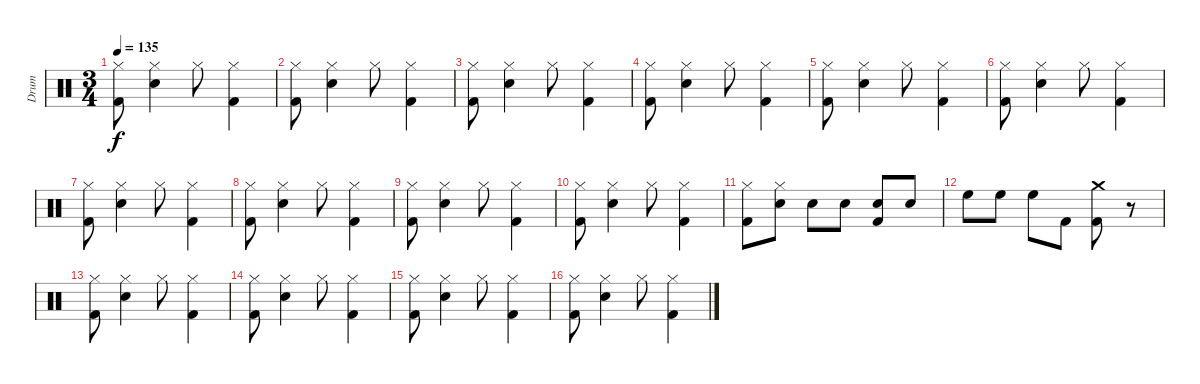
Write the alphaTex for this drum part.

\track ("Drum" "Drum") {instrument percussion}
\staff {score}
\articulation defaults
\ts (3 4)
\tempo 135
\clef neutral
\ks c
("Hi-Hat (closed)" "Kick (hit) 2").8{dy f} ("Hi-Hat (closed)" "Snare (hit) 2").4 "Hi-Hat (closed)".8 ("Hi-Hat (closed)" "Kick (hit) 2").4 |
("Hi-Hat (closed)" "Kick (hit) 2").8 ("Hi-Hat (closed)" "Snare (hit) 2").4 "Hi-Hat (closed)".8 ("Hi-Hat (closed)" "Kick (hit) 2").4 |
("Hi-Hat (closed)" "Kick (hit) 2").8 ("Hi-Hat (closed)" "Snare (hit) 2").4 "Hi-Hat (closed)".8 ("Hi-Hat (closed)" "Kick (hit) 2").4 |
("Hi-Hat (closed)" "Kick (hit) 2").8 ("Hi-Hat (closed)" "Snare (hit) 2").4 "Hi-Hat (closed)".8 ("Hi-Hat (closed)" "Kick (hit) 2").4 |
("Hi-Hat (closed)" "Kick (hit) 2").8 ("Hi-Hat (closed)" "Snare (hit) 2").4 "Hi-Hat (closed)".8 ("Hi-Hat (closed)" "Kick (hit) 2").4 |
("Hi-Hat (closed)" "Kick (hit) 2").8 ("Hi-Hat (closed)" "Snare (hit) 2").4 "Hi-Hat (closed)".8 ("Hi-Hat (closed)" "Kick (hit) 2").4 |
("Hi-Hat (closed)" "Kick (hit) 2").8 ("Hi-Hat (closed)" "Snare (hit) 2").4 "Hi-Hat (closed)".8 ("Hi-Hat (closed)" "Kick (hit) 2").4 |
("Hi-Hat (closed)" "Kick (hit) 2").8 ("Hi-Hat (closed)" "Snare (hit) 2").4 "Hi-Hat (closed)".8 ("Hi-Hat (closed)" "Kick (hit) 2").4 |
("Hi-Hat (closed)" "Kick (hit) 2").8 ("Hi-Hat (closed)" "Snare (hit) 2").4 "Hi-Hat (closed)".8 ("Hi-Hat (closed)" "Kick (hit) 2").4 |
("Hi-Hat (closed)" "Kick (hit) 2").8 ("Hi-Hat (closed)" "Snare (hit) 2").4 "Hi-Hat (closed)".8 ("Hi-Hat (closed)" "Kick (hit) 2").4 |
("Hi-Hat (closed)" "Kick (hit) 2").8 ("Hi-Hat (closed)" "Snare (hit) 2").8 "Snare (hit) 2".8 "Snare (hit) 2".8 ("Snare (hit) 2" "Kick (hit) 2").8 "Snare (hit) 2".8 |
"High Floor Tom (hit)".8 "High Floor Tom (hit)".8 "High Floor Tom (hit)".8 "Kick (hit) 2".8 ("Kick (hit) 2" "Crash medium (hit)").8 r.8 |
("Hi-Hat (closed)" "Kick (hit) 2").8 ("Hi-Hat (closed)" "Snare (hit) 2").4 "Hi-Hat (closed)".8 ("Hi-Hat (closed)" "Kick (hit) 2").4 |
("Hi-Hat (closed)" "Kick (hit) 2").8 ("Hi-Hat (closed)" "Snare (hit) 2").4 "Hi-Hat (closed)".8 ("Hi-Hat (closed)" "Kick (hit) 2").4 |
("Hi-Hat (closed)" "Kick (hit) 2").8 ("Hi-Hat (closed)" "Snare (hit) 2").4 "Hi-Hat (closed)".8 ("Hi-Hat (closed)" "Kick (hit) 2").4 |
("Hi-Hat (closed)" "Kick (hit) 2").8 ("Hi-Hat (closed)" "Snare (hit) 2").4 "Hi-Hat (closed)".8 ("Hi-Hat (closed)" "Kick (hit) 2").4
